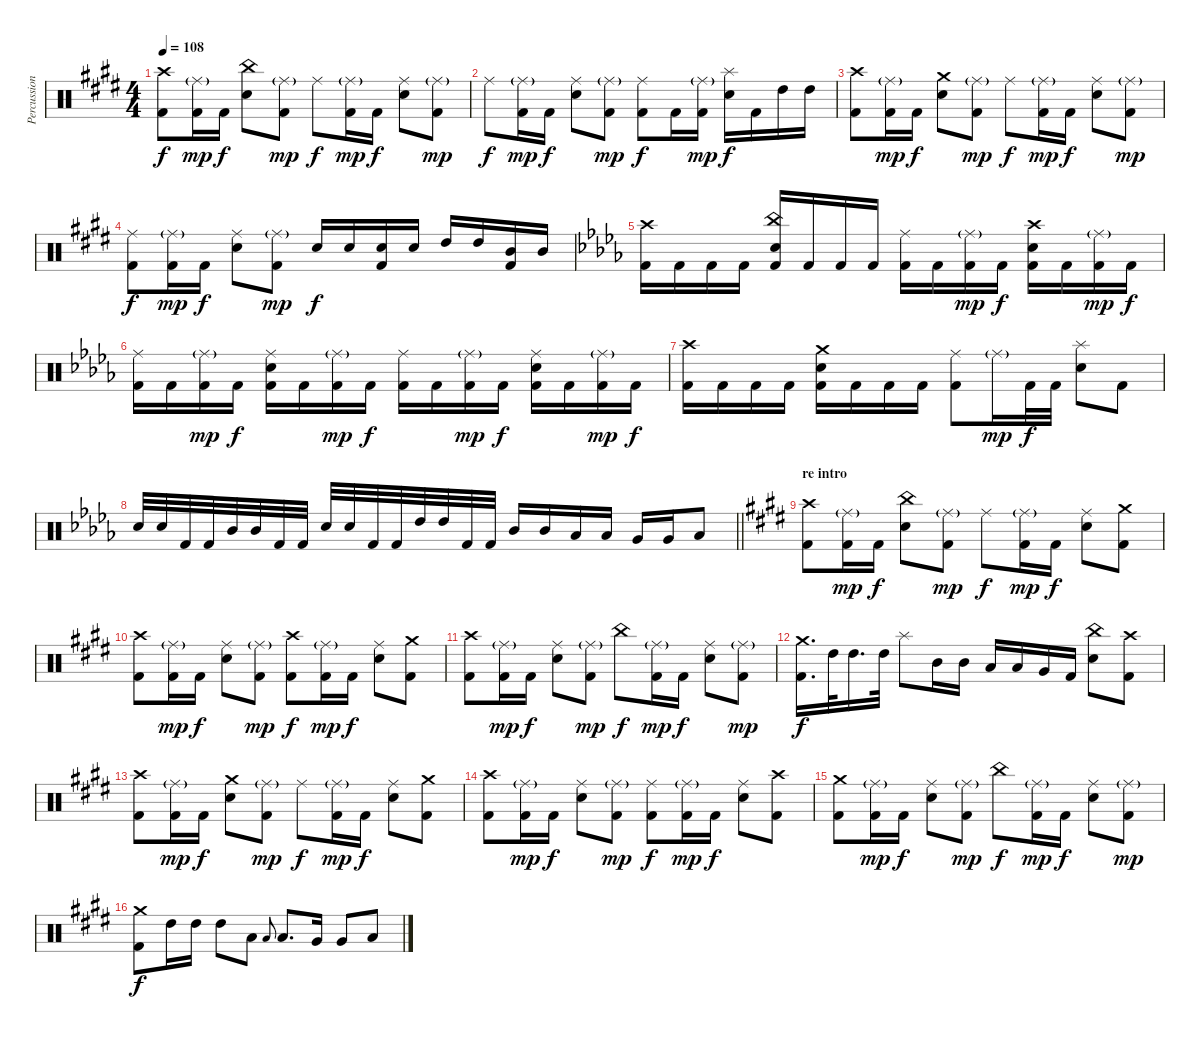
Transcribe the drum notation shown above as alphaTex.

\track ("Percussion" "Percussion") {instrument percussion}
\staff {score}
\articulation defaults
\ts (4 4)
\tempo 108
\clef neutral
\ks e
("Crash high (hit)" "Kick (hit) 2").8{dy f} ("Ride (middle)"{g} "Kick (hit) 2").16{dy mp} "Kick (hit) 2".16{dy f} ("China (hit)" "Electric Snare (hit)").8 ("Ride (middle)"{g} "Kick (hit) 2").8{dy mp} "Ride (middle)".8{dy f} ("Ride (middle)"{g} "Kick (hit) 2").16{dy mp} "Kick (hit) 2".16{dy f} ("Ride (middle)" "Electric Snare (hit)").8 ("Ride (middle)"{g} "Kick (hit) 2").8{dy mp} |
"Ride (middle)".8{dy f} ("Ride (middle)"{g} "Kick (hit) 2").16{dy mp} "Kick (hit) 2".16{dy f} ("Ride (middle)" "Electric Snare (hit)").8 ("Ride (middle)"{g} "Kick (hit) 2").8{dy mp} ("Ride (middle)" "Kick (hit) 2").8{dy f} "Kick (hit) 2".16 ("Ride (middle)"{g} "Kick (hit) 2").16{dy mp} ("Splash (hit)" "Electric Snare (hit)").16{dy f} "Kick (hit) 2".16 "High Tom (hit)".16 "High Tom (hit)".16 |
("Crash high (hit)" "Kick (hit) 2").8 ("Ride (middle)"{g} "Kick (hit) 2").16{dy mp} "Kick (hit) 2".16{dy f} ("Crash medium (hit)" "Electric Snare (hit)").8 ("Ride (middle)"{g} "Kick (hit) 2").8{dy mp} "Ride (middle)".8{dy f} ("Ride (middle)"{g} "Kick (hit) 2").16{dy mp} "Kick (hit) 2".16{dy f} ("Ride (middle)" "Electric Snare (hit)").8 ("Ride (middle)"{g} "Kick (hit) 2").8{dy mp} |
("Ride (middle)" "Kick (hit) 2").8{dy f} ("Ride (middle)"{g} "Kick (hit) 2").16{dy mp} "Kick (hit) 2".16{dy f} ("Ride (middle)" "Electric Snare (hit)").8 ("Ride (middle)"{g} "Kick (hit) 2").8{dy mp} "Electric Snare (hit)".16{dy f} "Electric Snare (hit)".16 ("Electric Snare (hit)" "Kick (hit) 2").16 "Electric Snare (hit)".16 "High Tom (hit)".16 "High Tom (hit)".16 ("Mid Tom (hit)" "Kick (hit) 2").16 "Mid Tom (hit)".16 |
\ks db
("Crash high (hit)" "Kick (hit) 2").16 "Kick (hit) 2".16 "Kick (hit) 2".16 "Kick (hit) 2".16 ("China (hit)" "Electric Snare (hit)" "Kick (hit) 2").16 "Kick (hit) 2".16 "Kick (hit) 2".16 "Kick (hit) 2".16 ("Ride (middle)" "Kick (hit) 2").16 "Kick (hit) 2".16 ("Ride (middle)"{g} "Kick (hit) 2").16{dy mp} "Kick (hit) 2".16{dy f} ("Crash high (hit)" "Electric Snare (hit)" "Kick (hit) 2").16 "Kick (hit) 2".16 ("Ride (middle)"{g} "Kick (hit) 2").16{dy mp} "Kick (hit) 2".16{dy f} |
("Ride (middle)" "Kick (hit) 2").16 "Kick (hit) 2".16 ("Ride (middle)"{g} "Kick (hit) 2").16{dy mp} "Kick (hit) 2".16{dy f} ("Ride (middle)" "Electric Snare (hit)" "Kick (hit) 2").16 "Kick (hit) 2".16 ("Ride (middle)"{g} "Kick (hit) 2").16{dy mp} "Kick (hit) 2".16{dy f} ("Ride (middle)" "Kick (hit) 2").16 "Kick (hit) 2".16 ("Ride (middle)"{g} "Kick (hit) 2").16{dy mp} "Kick (hit) 2".16{dy f} ("Ride (middle)" "Electric Snare (hit)" "Kick (hit) 2").16 "Kick (hit) 2".16 ("Ride (middle)"{g} "Kick (hit) 2").16{dy mp} "Kick (hit) 2".16{dy f} |
("Crash high (hit)" "Kick (hit) 2").16 "Kick (hit) 2".16 "Kick (hit) 2".16 "Kick (hit) 2".16 ("Crash medium (hit)" "Electric Snare (hit)" "Kick (hit) 2").16 "Kick (hit) 2".16 "Kick (hit) 2".16 "Kick (hit) 2".16 ("Ride (middle)" "Kick (hit) 2").8 "Ride (middle)"{g}.16{dy mp} "Kick (hit) 2".32{dy f} "Kick (hit) 2".32 ("Splash (hit)" "Electric Snare (hit)").8 "Kick (hit) 2".8 |
\barLineRight lightlight "Electric Snare (hit)".32 "Electric Snare (hit)".32 "Kick (hit) 2".32 "Kick (hit) 2".32 "Mid Tom (hit)".32 "Mid Tom (hit)".32 "Kick (hit) 2".32 "Kick (hit) 2".32 "Electric Snare (hit)".32 "Electric Snare (hit)".32 "Kick (hit) 2".32 "Kick (hit) 2".32 "High Tom (hit)".32 "High Tom (hit)".32 "Kick (hit) 2".32 "Kick (hit) 2".32 "Mid Tom (hit)".16 "Mid Tom (hit)".16 "Low Tom (hit)".16 "Low Tom (hit)".16 "Very Low Tom (hit)".16 "Very Low Tom (hit)".16 "Low Floor Tom (hit)".8
|
\section ("" "re intro")
\ks e
("Crash high (hit)" "Kick (hit) 2").8 ("Ride (middle)"{g} "Kick (hit) 2").16{dy mp} "Kick (hit) 2".16{dy f} ("China (hit)" "Electric Snare (hit)").8 ("Ride (middle)"{g} "Kick (hit) 2").8{dy mp} "Ride (middle)".8{dy f} ("Ride (middle)"{g} "Kick (hit) 2").16{dy mp} "Kick (hit) 2".16{dy f} ("Ride (middle)" "Electric Snare (hit)").8 ("Crash medium (hit)" "Kick (hit) 2").8 |
("Crash high (hit)" "Kick (hit) 2").8 ("Ride (middle)"{g} "Kick (hit) 2").16{dy mp} "Kick (hit) 2".16{dy f} ("Ride (middle)" "Electric Snare (hit)").8 ("Ride (middle)"{g} "Kick (hit) 2").8{dy mp} ("Crash high (hit)" "Kick (hit) 2").8{dy f} ("Ride (middle)"{g} "Kick (hit) 2").16{dy mp} "Kick (hit) 2".16{dy f} ("Ride (middle)" "Electric Snare (hit)").8 ("Crash medium (hit)" "Kick (hit) 2").8 |
("Crash high (hit)" "Kick (hit) 2").8 ("Ride (middle)"{g} "Kick (hit) 2").16{dy mp} "Kick (hit) 2".16{dy f} ("Ride (middle)" "Electric Snare (hit)").8 ("Ride (middle)"{g} "Kick (hit) 2").8{dy mp} "China (hit)".8{dy f} ("Ride (middle)"{g} "Kick (hit) 2").16{dy mp} "Kick (hit) 2".16{dy f} ("Ride (middle)" "Electric Snare (hit)").8 ("Ride (middle)"{g} "Kick (hit) 2").8{dy mp} |
("Crash medium (hit)" "Kick (hit) 2").16{d dy f} "High Tom (hit)".32 "High Tom (hit)".16{d} "High Tom (hit)".32 "Splash (hit)".8 "Mid Tom (hit)".16 "Mid Tom (hit)".16 "Low Tom (hit)".16 "Low Tom (hit)".16 "Very Low Tom (hit)".16 "Kick (hit) 2".16 ("China (hit)" "Electric Snare (hit)").8 ("Crash high (hit)" "Kick (hit) 2").8 |
("Crash high (hit)" "Kick (hit) 2").8 ("Ride (middle)"{g} "Kick (hit) 2").16{dy mp} "Kick (hit) 2".16{dy f} ("Crash medium (hit)" "Electric Snare (hit)").8 ("Ride (middle)"{g} "Kick (hit) 2").8{dy mp} "Ride (middle)".8{dy f} ("Ride (middle)"{g} "Kick (hit) 2").16{dy mp} "Kick (hit) 2".16{dy f} ("Ride (middle)" "Electric Snare (hit)").8 ("Crash medium (hit)" "Kick (hit) 2").8 |
("Crash high (hit)" "Kick (hit) 2").8 ("Ride (middle)"{g} "Kick (hit) 2").16{dy mp} "Kick (hit) 2".16{dy f} ("Ride (middle)" "Electric Snare (hit)").8 ("Ride (middle)"{g} "Kick (hit) 2").8{dy mp} ("Ride (middle)" "Kick (hit) 2").8{dy f} ("Ride (middle)"{g} "Kick (hit) 2").16{dy mp} "Kick (hit) 2".16{dy f} ("Ride (middle)" "Electric Snare (hit)").8 ("Crash high (hit)" "Kick (hit) 2").8 |
("Crash medium (hit)" "Kick (hit) 2").8 ("Ride (middle)"{g} "Kick (hit) 2").16{dy mp} "Kick (hit) 2".16{dy f} ("Ride (middle)" "Electric Snare (hit)").8 ("Ride (middle)"{g} "Kick (hit) 2").8{dy mp} "China (hit)".8{dy f} ("Ride (middle)"{g} "Kick (hit) 2").16{dy mp} "Kick (hit) 2".16{dy f} ("Ride (middle)" "Electric Snare (hit)").8 ("Ride (middle)"{g} "Kick (hit) 2").8{dy mp} |
("Crash medium (hit)" "Kick (hit) 2").8{dy f} "High Tom (hit)".16 "High Tom (hit)".16 "High Tom (hit)".8 "Low Tom (hit)".8 "Low Tom (hit)".8{gr onbeat} "Low Tom (hit)".8{d} "Very Low Tom (hit)".16 "Very Low Tom (hit)".8 "Low Floor Tom (hit)".8
